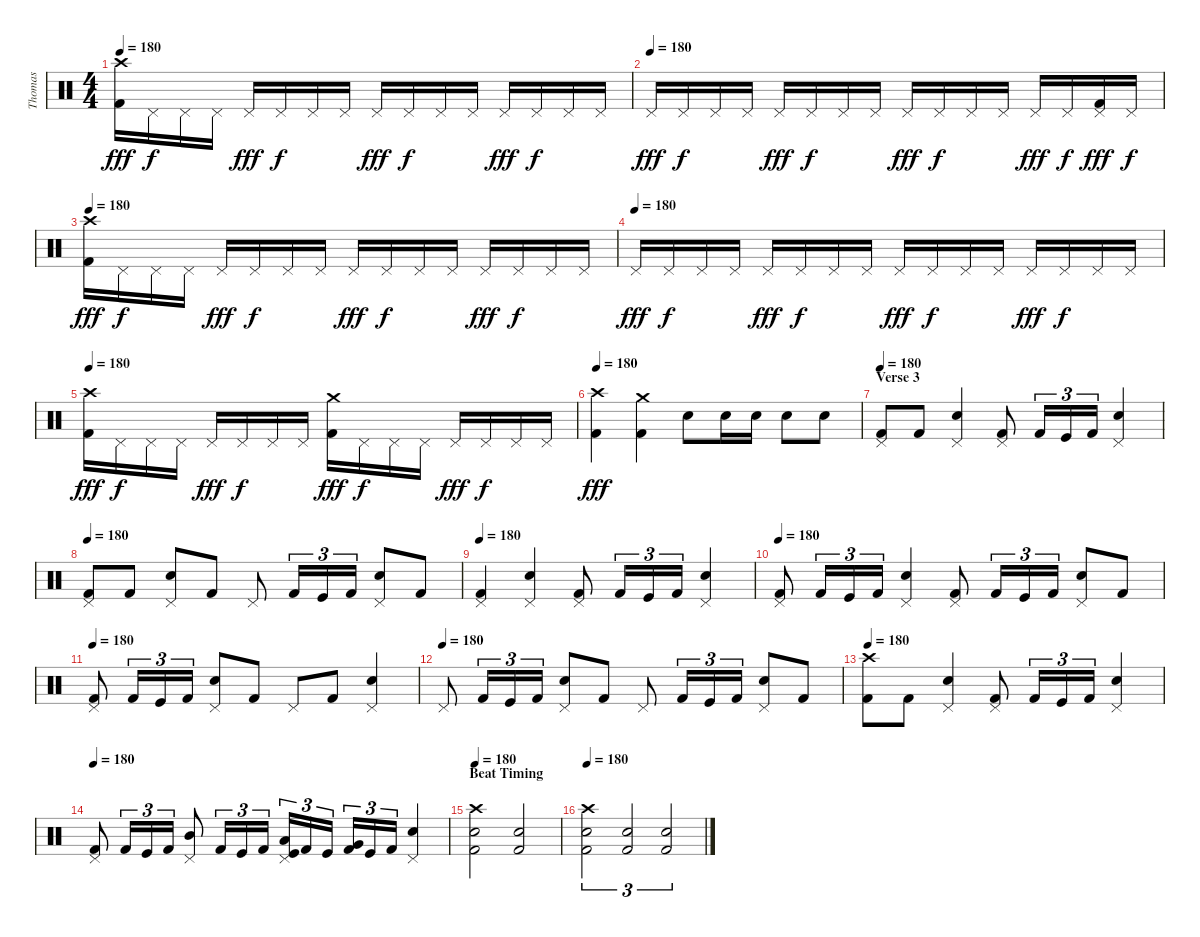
\track ("Thomas" "Thomas") {instrument percussion}
\staff {score}
\articulation defaults
\ts (4 4)
\tempo 180
\clef neutral
\ks c
("Crash high (hit)" "Kick (hit) 2").16{dy fff} "Pedal Hi-Hat (hit)".16{dy f} "Pedal Hi-Hat (hit)".16 "Pedal Hi-Hat (hit)".16 "Pedal Hi-Hat (hit)".16{dy fff} "Pedal Hi-Hat (hit)".16{dy f} "Pedal Hi-Hat (hit)".16 "Pedal Hi-Hat (hit)".16 "Pedal Hi-Hat (hit)".16{dy fff} "Pedal Hi-Hat (hit)".16{dy f} "Pedal Hi-Hat (hit)".16 "Pedal Hi-Hat (hit)".16 "Pedal Hi-Hat (hit)".16{dy fff} "Pedal Hi-Hat (hit)".16{dy f} "Pedal Hi-Hat (hit)".16 "Pedal Hi-Hat (hit)".16 |
\tempo (180)
"Pedal Hi-Hat (hit)".16{dy fff} "Pedal Hi-Hat (hit)".16{dy f} "Pedal Hi-Hat (hit)".16 "Pedal Hi-Hat (hit)".16 "Pedal Hi-Hat (hit)".16{dy fff} "Pedal Hi-Hat (hit)".16{dy f} "Pedal Hi-Hat (hit)".16 "Pedal Hi-Hat (hit)".16 "Pedal Hi-Hat (hit)".16{dy fff} "Pedal Hi-Hat (hit)".16{dy f} "Pedal Hi-Hat (hit)".16 "Pedal Hi-Hat (hit)".16 "Pedal Hi-Hat (hit)".16{dy fff} "Pedal Hi-Hat (hit)".16{dy f} ("Pedal Hi-Hat (hit)" "Kick (hit) 2").16{dy fff} "Pedal Hi-Hat (hit)".16{dy f} |
\tempo 180
("Crash high (hit)" "Kick (hit) 2").16{dy fff} "Pedal Hi-Hat (hit)".16{dy f} "Pedal Hi-Hat (hit)".16 "Pedal Hi-Hat (hit)".16 "Pedal Hi-Hat (hit)".16{dy fff} "Pedal Hi-Hat (hit)".16{dy f} "Pedal Hi-Hat (hit)".16 "Pedal Hi-Hat (hit)".16 "Pedal Hi-Hat (hit)".16{dy fff} "Pedal Hi-Hat (hit)".16{dy f} "Pedal Hi-Hat (hit)".16 "Pedal Hi-Hat (hit)".16 "Pedal Hi-Hat (hit)".16{dy fff} "Pedal Hi-Hat (hit)".16{dy f} "Pedal Hi-Hat (hit)".16 "Pedal Hi-Hat (hit)".16 |
\tempo (180)
"Pedal Hi-Hat (hit)".16{dy fff} "Pedal Hi-Hat (hit)".16{dy f} "Pedal Hi-Hat (hit)".16 "Pedal Hi-Hat (hit)".16 "Pedal Hi-Hat (hit)".16{dy fff} "Pedal Hi-Hat (hit)".16{dy f} "Pedal Hi-Hat (hit)".16 "Pedal Hi-Hat (hit)".16 "Pedal Hi-Hat (hit)".16{dy fff} "Pedal Hi-Hat (hit)".16{dy f} "Pedal Hi-Hat (hit)".16 "Pedal Hi-Hat (hit)".16 "Pedal Hi-Hat (hit)".16{dy fff} "Pedal Hi-Hat (hit)".16{dy f} "Pedal Hi-Hat (hit)".16 "Pedal Hi-Hat (hit)".16 |
\tempo 180
("Crash high (hit)" "Kick (hit) 2").16{dy fff} "Pedal Hi-Hat (hit)".16{dy f} "Pedal Hi-Hat (hit)".16 "Pedal Hi-Hat (hit)".16 "Pedal Hi-Hat (hit)".16{dy fff} "Pedal Hi-Hat (hit)".16{dy f} "Pedal Hi-Hat (hit)".16 "Pedal Hi-Hat (hit)".16 ("Crash medium (hit)" "Kick (hit) 2").16{dy fff} "Pedal Hi-Hat (hit)".16{dy f} "Pedal Hi-Hat (hit)".16 "Pedal Hi-Hat (hit)".16 "Pedal Hi-Hat (hit)".16{dy fff} "Pedal Hi-Hat (hit)".16{dy f} "Pedal Hi-Hat (hit)".16 "Pedal Hi-Hat (hit)".16 |
\tempo 180
("Crash high (hit)" "Kick (hit) 2").4{dy fff} ("Crash medium (hit)" "Kick (hit) 2").4 "Snare (hit) 2".8 "Snare (hit) 2".16 "Snare (hit) 2".16 "Snare (hit) 2".8 "Snare (hit) 2".8 |
\section ("" "Verse 3")
\tempo 180
("Pedal Hi-Hat (hit)" "Kick (hit) 2").8 "Kick (hit) 2".8 ("Pedal Hi-Hat (hit)" "Snare (hit) 2").4 ("Pedal Hi-Hat (hit)" "Kick (hit) 2").8 "Kick (hit) 2".16{tu (3 2)} "Kick (hit)".16{tu (3 2)} "Kick (hit) 2".16{tu (3 2)} ("Pedal Hi-Hat (hit)" "Snare (hit) 2").4 |
\tempo 180
("Pedal Hi-Hat (hit)" "Kick (hit) 2").8 "Kick (hit) 2".8 ("Pedal Hi-Hat (hit)" "Snare (hit) 2").8 "Kick (hit) 2".8 "Pedal Hi-Hat (hit)".8 "Kick (hit) 2".16{tu (3 2)} "Kick (hit)".16{tu (3 2)} "Kick (hit) 2".16{tu (3 2)} ("Pedal Hi-Hat (hit)" "Snare (hit) 2").8 "Kick (hit) 2".8 |
\tempo 180
("Pedal Hi-Hat (hit)" "Kick (hit) 2").4 ("Pedal Hi-Hat (hit)" "Snare (hit) 2").4 ("Pedal Hi-Hat (hit)" "Kick (hit) 2").8 "Kick (hit) 2".16{tu (3 2)} "Kick (hit)".16{tu (3 2)} "Kick (hit) 2".16{tu (3 2)} ("Pedal Hi-Hat (hit)" "Snare (hit) 2").4 |
\tempo 180
("Pedal Hi-Hat (hit)" "Kick (hit) 2").8 "Kick (hit) 2".16{tu (3 2)} "Kick (hit)".16{tu (3 2)} "Kick (hit) 2".16{tu (3 2)} ("Pedal Hi-Hat (hit)" "Snare (hit) 2").4 ("Pedal Hi-Hat (hit)" "Kick (hit) 2").8 "Kick (hit) 2".16{tu (3 2)} "Kick (hit)".16{tu (3 2)} "Kick (hit) 2".16{tu (3 2)} ("Pedal Hi-Hat (hit)" "Snare (hit) 2").8 "Kick (hit) 2".8 |
\tempo 180
("Pedal Hi-Hat (hit)" "Kick (hit) 2").8 "Kick (hit) 2".16{tu (3 2)} "Kick (hit)".16{tu (3 2)} "Kick (hit) 2".16{tu (3 2)} ("Pedal Hi-Hat (hit)" "Snare (hit) 2").8 "Kick (hit) 2".8 "Pedal Hi-Hat (hit)".8 "Kick (hit) 2".8 ("Pedal Hi-Hat (hit)" "Snare (hit) 2").4 |
\tempo (180)
"Pedal Hi-Hat (hit)".8 "Kick (hit) 2".16{tu (3 2)} "Kick (hit)".16{tu (3 2)} "Kick (hit) 2".16{tu (3 2)} ("Pedal Hi-Hat (hit)" "Snare (hit) 2").8 "Kick (hit) 2".8 "Pedal Hi-Hat (hit)".8 "Kick (hit) 2".16{tu (3 2)} "Kick (hit)".16{tu (3 2)} "Kick (hit) 2".16{tu (3 2)} ("Pedal Hi-Hat (hit)" "Snare (hit) 2").8 "Kick (hit) 2".8 |
\tempo 180
("Crash high (hit)" "Kick (hit) 2").8 "Kick (hit) 2".8 ("Pedal Hi-Hat (hit)" "Snare (hit) 2").4 ("Pedal Hi-Hat (hit)" "Kick (hit) 2").8 "Kick (hit) 2".16{tu (3 2)} "Kick (hit)".16{tu (3 2)} "Kick (hit) 2".16{tu (3 2)} ("Pedal Hi-Hat (hit)" "Snare (hit) 2").4 |
\tempo 180
("Pedal Hi-Hat (hit)" "Kick (hit) 2").8 "Kick (hit) 2".16{tu (3 2)} "Kick (hit)".16{tu (3 2)} "Kick (hit) 2".16{tu (3 2)} ("Pedal Hi-Hat (hit)" "Mid Tom (hit)").8 "Kick (hit) 2".16{tu (3 2)} "Kick (hit)".16{tu (3 2)} "Kick (hit) 2".16{tu (3 2)} ("Pedal Hi-Hat (hit)" "Low Tom (hit)" "Kick (hit)").16{tu (3 2)} "Kick (hit) 2".16{tu (3 2)} "Kick (hit)".16{tu (3 2)} ("Very Low Tom (hit)" "Kick (hit) 2").16{tu (3 2)} "Kick (hit)".16{tu (3 2)} "Kick (hit) 2".16{tu (3 2)} ("Pedal Hi-Hat (hit)" "Snare (hit) 2").4 |
\section ("" "Beat Timing")
\tempo 180
("Crash high (hit)" "Snare (hit) 2" "Kick (hit) 2").2 ("Snare (hit) 2" "Kick (hit) 2").2 |
\tempo 180
("Crash high (hit)" "Snare (hit) 2" "Kick (hit) 2").2{tu (3 2)} ("Snare (hit) 2" "Kick (hit) 2").2{tu (3 2)} ("Snare (hit) 2" "Kick (hit) 2").2{tu (3 2)}
